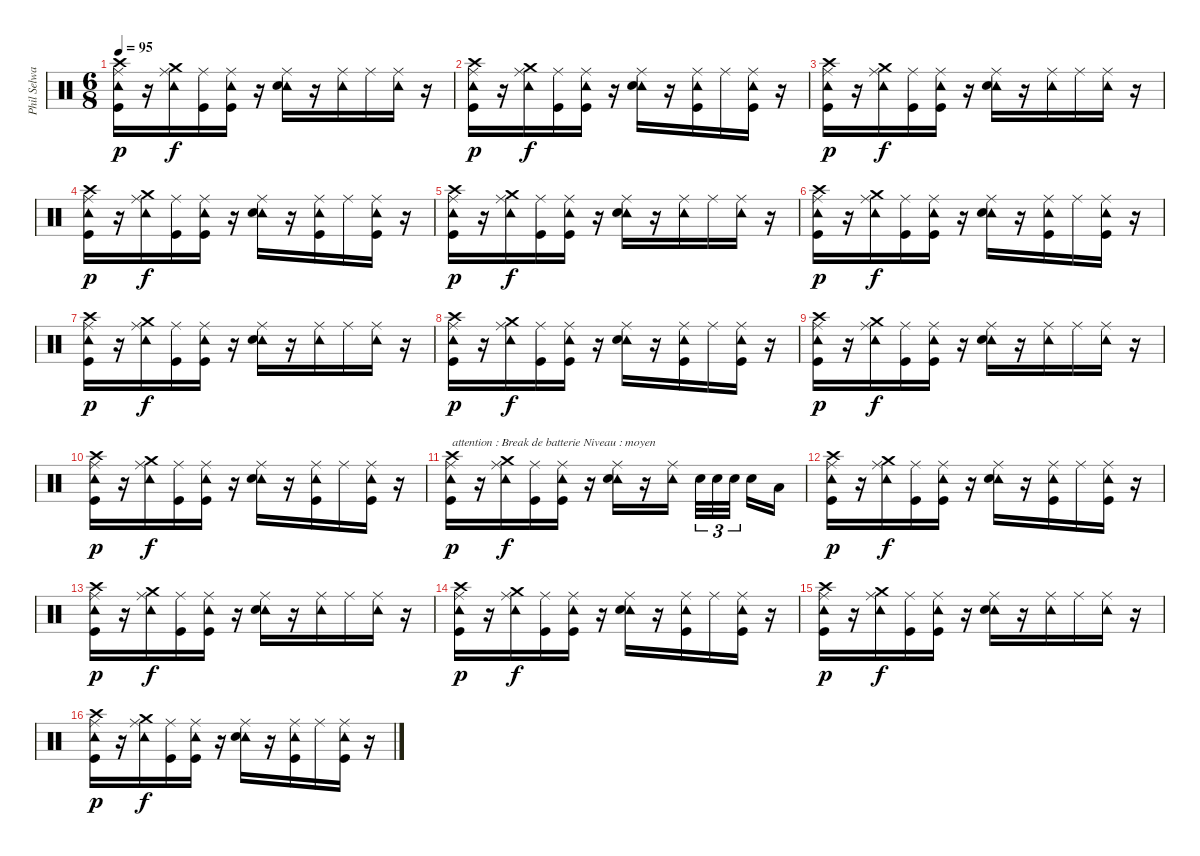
\track ("Phil Selway (Percussions)" "Phil Selwa") {instrument percussion}
\staff {score}
\articulation defaults
\ts (6 8)
\tempo 95
\clef neutral
\ks c
("Ride (middle)" "Tambourine (hit)" "Crash high (hit)" "Kick (hit)").16{dy p} r.16 ("Ride (middle)" "Tambourine (hit)" "Crash medium (hit)").16{dy f} ("Ride (middle)" "Kick (hit)").16 ("Ride (middle)" "Tambourine (hit)" "Kick (hit)").16 r.16 ("Ride (middle)" "Tambourine (hit)" "Electric Snare (hit)").16 r.16 ("Ride (middle)" "Tambourine (hit)").16 "Ride (middle)".16 ("Ride (middle)" "Tambourine (hit)").16 r.16 |
("Ride (middle)" "Tambourine (hit)" "Crash high (hit)" "Kick (hit)").16{dy p} r.16 ("Ride (middle)" "Tambourine (hit)" "Crash medium (hit)").16{dy f} ("Ride (middle)" "Kick (hit)").16 ("Ride (middle)" "Tambourine (hit)" "Kick (hit)").16 r.16 ("Ride (middle)" "Tambourine (hit)" "Electric Snare (hit)").16 r.16 ("Ride (middle)" "Tambourine (hit)" "Kick (hit)").16 "Ride (middle)".16 ("Ride (middle)" "Tambourine (hit)" "Kick (hit)").16 r.16 |
("Ride (middle)" "Tambourine (hit)" "Crash high (hit)" "Kick (hit)").16{dy p} r.16 ("Ride (middle)" "Tambourine (hit)" "Crash medium (hit)").16{dy f} ("Ride (middle)" "Kick (hit)").16 ("Ride (middle)" "Tambourine (hit)" "Kick (hit)").16 r.16 ("Ride (middle)" "Tambourine (hit)" "Electric Snare (hit)").16 r.16 ("Ride (middle)" "Tambourine (hit)").16 "Ride (middle)".16 ("Ride (middle)" "Tambourine (hit)").16 r.16 |
("Ride (middle)" "Tambourine (hit)" "Crash high (hit)" "Kick (hit)").16{dy p} r.16 ("Ride (middle)" "Tambourine (hit)" "Crash medium (hit)").16{dy f} ("Ride (middle)" "Kick (hit)").16 ("Ride (middle)" "Tambourine (hit)" "Kick (hit)").16 r.16 ("Ride (middle)" "Tambourine (hit)" "Electric Snare (hit)").16 r.16 ("Ride (middle)" "Tambourine (hit)" "Kick (hit)").16 "Ride (middle)".16 ("Ride (middle)" "Tambourine (hit)" "Kick (hit)").16 r.16 |
("Ride (middle)" "Tambourine (hit)" "Crash high (hit)" "Kick (hit)").16{dy p} r.16 ("Ride (middle)" "Tambourine (hit)" "Crash medium (hit)").16{dy f} ("Ride (middle)" "Kick (hit)").16 ("Ride (middle)" "Tambourine (hit)" "Kick (hit)").16 r.16 ("Ride (middle)" "Tambourine (hit)" "Electric Snare (hit)").16 r.16 ("Ride (middle)" "Tambourine (hit)").16 "Ride (middle)".16 ("Ride (middle)" "Tambourine (hit)").16 r.16 |
("Ride (middle)" "Tambourine (hit)" "Crash high (hit)" "Kick (hit)").16{dy p} r.16 ("Ride (middle)" "Tambourine (hit)" "Crash medium (hit)").16{dy f} ("Ride (middle)" "Kick (hit)").16 ("Ride (middle)" "Tambourine (hit)" "Kick (hit)").16 r.16 ("Ride (middle)" "Tambourine (hit)" "Electric Snare (hit)").16 r.16 ("Ride (middle)" "Tambourine (hit)" "Kick (hit)").16 "Ride (middle)".16 ("Ride (middle)" "Tambourine (hit)" "Kick (hit)").16 r.16 |
("Ride (middle)" "Tambourine (hit)" "Crash high (hit)" "Kick (hit)").16{dy p} r.16 ("Ride (middle)" "Tambourine (hit)" "Crash medium (hit)").16{dy f} ("Ride (middle)" "Kick (hit)").16 ("Ride (middle)" "Tambourine (hit)" "Kick (hit)").16 r.16 ("Ride (middle)" "Tambourine (hit)" "Electric Snare (hit)").16 r.16 ("Ride (middle)" "Tambourine (hit)").16 "Ride (middle)".16 ("Ride (middle)" "Tambourine (hit)").16 r.16 |
("Ride (middle)" "Tambourine (hit)" "Crash high (hit)" "Kick (hit)").16{dy p} r.16 ("Ride (middle)" "Tambourine (hit)" "Crash medium (hit)").16{dy f} ("Ride (middle)" "Kick (hit)").16 ("Ride (middle)" "Tambourine (hit)" "Kick (hit)").16 r.16 ("Ride (middle)" "Tambourine (hit)" "Electric Snare (hit)").16 r.16 ("Ride (middle)" "Tambourine (hit)" "Kick (hit)").16 "Ride (middle)".16 ("Ride (middle)" "Tambourine (hit)" "Kick (hit)").16 r.16 |
("Ride (middle)" "Tambourine (hit)" "Crash high (hit)" "Kick (hit)").16{dy p} r.16 ("Ride (middle)" "Tambourine (hit)" "Crash medium (hit)").16{dy f} ("Ride (middle)" "Kick (hit)").16 ("Ride (middle)" "Tambourine (hit)" "Kick (hit)").16 r.16 ("Ride (middle)" "Tambourine (hit)" "Electric Snare (hit)").16 r.16 ("Ride (middle)" "Tambourine (hit)").16 "Ride (middle)".16 ("Ride (middle)" "Tambourine (hit)").16 r.16 |
("Ride (middle)" "Tambourine (hit)" "Crash high (hit)" "Kick (hit)").16{dy p} r.16 ("Ride (middle)" "Tambourine (hit)" "Crash medium (hit)").16{dy f} ("Ride (middle)" "Kick (hit)").16 ("Ride (middle)" "Tambourine (hit)" "Kick (hit)").16 r.16 ("Ride (middle)" "Tambourine (hit)" "Electric Snare (hit)").16 r.16 ("Ride (middle)" "Tambourine (hit)" "Kick (hit)").16 "Ride (middle)".16 ("Ride (middle)" "Tambourine (hit)" "Kick (hit)").16 r.16 |
("Ride (middle)" "Tambourine (hit)" "Crash high (hit)" "Kick (hit)").16{txt "attention : Break de batterie Niveau : moyen " dy p} r.16 ("Ride (middle)" "Tambourine (hit)" "Crash medium (hit)").16{dy f} ("Ride (middle)" "Kick (hit)").16 ("Ride (middle)" "Tambourine (hit)" "Kick (hit)").16 r.16 ("Ride (middle)" "Tambourine (hit)" "Electric Snare (hit)").16 r.16 ("Ride (middle)" "Tambourine (hit)").16 "Electric Snare (hit)".32{tu (3 2)} "Electric Snare (hit)".32{tu (3 2)} "Electric Snare (hit)".32{tu (3 2)} "Snare (hit) 2".16 "Low Tom (hit)".16 |
("Ride (middle)" "Tambourine (hit)" "Crash high (hit)" "Kick (hit)").16{dy p} r.16 ("Ride (middle)" "Tambourine (hit)" "Crash medium (hit)").16{dy f} ("Ride (middle)" "Kick (hit)").16 ("Ride (middle)" "Tambourine (hit)" "Kick (hit)").16 r.16 ("Ride (middle)" "Tambourine (hit)" "Electric Snare (hit)").16 r.16 ("Ride (middle)" "Tambourine (hit)" "Kick (hit)").16 "Ride (middle)".16 ("Ride (middle)" "Tambourine (hit)" "Kick (hit)").16 r.16 |
("Ride (middle)" "Tambourine (hit)" "Crash high (hit)" "Kick (hit)").16{dy p} r.16 ("Ride (middle)" "Tambourine (hit)" "Crash medium (hit)").16{dy f} ("Ride (middle)" "Kick (hit)").16 ("Ride (middle)" "Tambourine (hit)" "Kick (hit)").16 r.16 ("Ride (middle)" "Tambourine (hit)" "Electric Snare (hit)").16 r.16 ("Ride (middle)" "Tambourine (hit)").16 "Ride (middle)".16 ("Ride (middle)" "Tambourine (hit)").16 r.16 |
("Ride (middle)" "Tambourine (hit)" "Crash high (hit)" "Kick (hit)").16{dy p} r.16 ("Ride (middle)" "Tambourine (hit)" "Crash medium (hit)").16{dy f} ("Ride (middle)" "Kick (hit)").16 ("Ride (middle)" "Tambourine (hit)" "Kick (hit)").16 r.16 ("Ride (middle)" "Tambourine (hit)" "Electric Snare (hit)").16 r.16 ("Ride (middle)" "Tambourine (hit)" "Kick (hit)").16 "Ride (middle)".16 ("Ride (middle)" "Tambourine (hit)" "Kick (hit)").16 r.16 |
("Ride (middle)" "Tambourine (hit)" "Crash high (hit)" "Kick (hit)").16{dy p} r.16 ("Ride (middle)" "Tambourine (hit)" "Crash medium (hit)").16{dy f} ("Ride (middle)" "Kick (hit)").16 ("Ride (middle)" "Tambourine (hit)" "Kick (hit)").16 r.16 ("Ride (middle)" "Tambourine (hit)" "Electric Snare (hit)").16 r.16 ("Ride (middle)" "Tambourine (hit)").16 "Ride (middle)".16 ("Ride (middle)" "Tambourine (hit)").16 r.16 |
("Ride (middle)" "Tambourine (hit)" "Crash high (hit)" "Kick (hit)").16{dy p} r.16 ("Ride (middle)" "Tambourine (hit)" "Crash medium (hit)").16{dy f} ("Ride (middle)" "Kick (hit)").16 ("Ride (middle)" "Tambourine (hit)" "Kick (hit)").16 r.16 ("Ride (middle)" "Tambourine (hit)" "Electric Snare (hit)").16 r.16 ("Ride (middle)" "Tambourine (hit)" "Kick (hit)").16 "Ride (middle)".16 ("Ride (middle)" "Tambourine (hit)" "Kick (hit)").16 r.16
